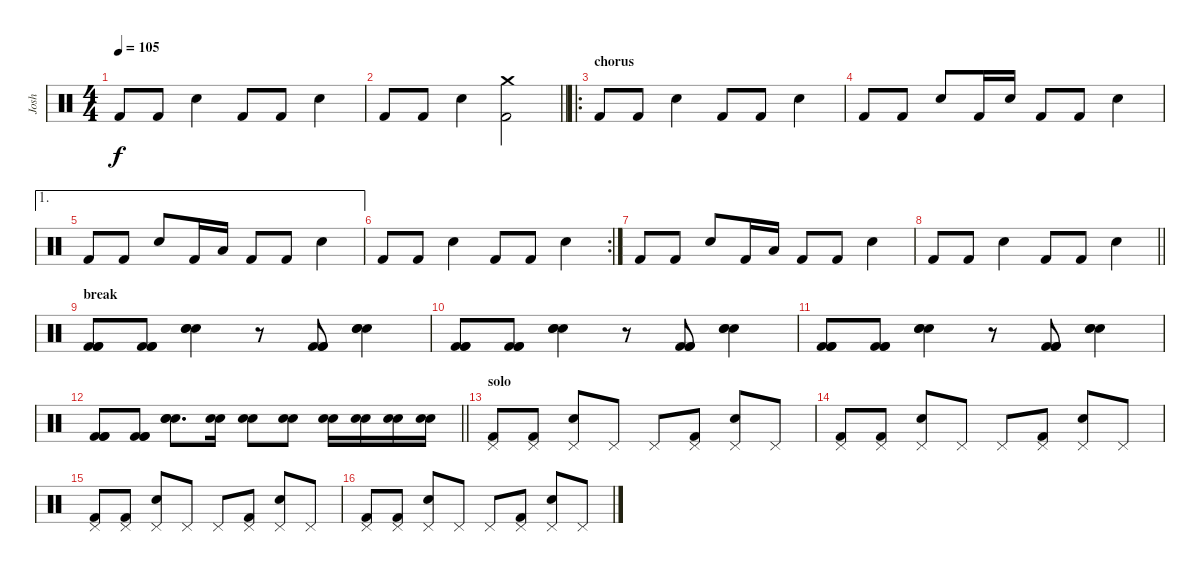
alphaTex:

\track ("Josh" "Josh") {instrument percussion}
\staff {score}
\articulation defaults
\ts (4 4)
\tempo 105
\clef neutral
\ks c "Kick (hit) 2".8{dy f} "Kick (hit) 2".8 "Electric Snare (hit)".4 "Kick (hit) 2".8 "Kick (hit) 2".8 "Electric Snare (hit)".4
|
\barLineRight lightlight "Kick (hit) 2".8 "Kick (hit) 2".8 "Electric Snare (hit)".4
("Crash medium (hit)" "Kick (hit) 2").2 |
\ro
\section ("" "chorus")
"Kick (hit) 2".8 "Kick (hit) 2".8 "Electric Snare (hit)".4 "Kick (hit) 2".8 "Kick (hit) 2".8 "Electric Snare (hit)".4 |
"Kick (hit) 2".8 "Kick (hit) 2".8 "Electric Snare (hit)".8 "Kick (hit) 2".16 "Electric Snare (hit)".16 "Kick (hit) 2".8 "Kick (hit) 2".8 "Electric Snare (hit)".4 |
\ae 1 "Kick (hit) 2".8 "Kick (hit) 2".8 "Electric Snare (hit)".8 "Kick (hit) 2".16 "Low Tom (hit)".16 "Kick (hit) 2".8 "Kick (hit) 2".8 "Electric Snare (hit)".4
|
\rc 2 "Kick (hit) 2".8 "Kick (hit) 2".8 "Electric Snare (hit)".4 "Kick (hit) 2".8 "Kick (hit) 2".8 "Electric Snare (hit)".4
|
"Kick (hit) 2".8 "Kick (hit) 2".8 "Electric Snare (hit)".8 "Kick (hit) 2".16 "Low Tom (hit)".16 "Kick (hit) 2".8 "Kick (hit) 2".8 "Electric Snare (hit)".4 |
\barLineRight lightlight "Kick (hit) 2".8 "Kick (hit) 2".8 "Electric Snare (hit)".4 "Kick (hit) 2".8 "Kick (hit) 2".8 "Electric Snare (hit)".4
|
\section ("" "break")
("Kick (hit) 2" "Kick (hit) 2" "Kick (hit) 2").8{volume 16} ("Kick (hit) 2" "Kick (hit) 2" "Kick (hit) 2").8 ("Electric Snare (hit)" "Electric Snare (hit)" "Electric Snare (hit)").4 r.8 ("Kick (hit) 2" "Kick (hit) 2" "Kick (hit) 2").8 ("Electric Snare (hit)" "Electric Snare (hit)" "Electric Snare (hit)").4 |
("Kick (hit) 2" "Kick (hit) 2" "Kick (hit) 2").8 ("Kick (hit) 2" "Kick (hit) 2" "Kick (hit) 2").8 ("Electric Snare (hit)" "Electric Snare (hit)" "Electric Snare (hit)").4 r.8 ("Kick (hit) 2" "Kick (hit) 2" "Kick (hit) 2").8 ("Electric Snare (hit)" "Electric Snare (hit)" "Electric Snare (hit)").4 |
("Kick (hit) 2" "Kick (hit) 2" "Kick (hit) 2").8 ("Kick (hit) 2" "Kick (hit) 2" "Kick (hit) 2").8 ("Electric Snare (hit)" "Electric Snare (hit)" "Electric Snare (hit)").4 r.8 ("Kick (hit) 2" "Kick (hit) 2" "Kick (hit) 2").8 ("Electric Snare (hit)" "Electric Snare (hit)" "Electric Snare (hit)").4 |
\barLineRight lightlight
("Kick (hit) 2" "Kick (hit) 2" "Kick (hit) 2").8 ("Kick (hit) 2" "Kick (hit) 2" "Kick (hit) 2").8 ("Electric Snare (hit)" "Electric Snare (hit)" "Electric Snare (hit)").8{d} ("Electric Snare (hit)" "Electric Snare (hit)").16 ("Electric Snare (hit)" "Electric Snare (hit)").8 ("Electric Snare (hit)" "Electric Snare (hit)").8 ("Electric Snare (hit)" "Electric Snare (hit)").16 ("Electric Snare (hit)" "Electric Snare (hit)").16 ("Electric Snare (hit)" "Electric Snare (hit)").16 ("Electric Snare (hit)" "Electric Snare (hit)").16 |
\section ("" "solo")
("Pedal Hi-Hat (hit)" "Kick (hit) 2").8 ("Pedal Hi-Hat (hit)" "Kick (hit) 2").8 ("Pedal Hi-Hat (hit)" "Electric Snare (hit)").8 "Pedal Hi-Hat (hit)".8 "Pedal Hi-Hat (hit)".8 ("Pedal Hi-Hat (hit)" "Kick (hit) 2").8 ("Pedal Hi-Hat (hit)" "Electric Snare (hit)").8 "Pedal Hi-Hat (hit)".8 |
("Pedal Hi-Hat (hit)" "Kick (hit) 2").8 ("Pedal Hi-Hat (hit)" "Kick (hit) 2").8 ("Pedal Hi-Hat (hit)" "Electric Snare (hit)").8 "Pedal Hi-Hat (hit)".8 "Pedal Hi-Hat (hit)".8 ("Pedal Hi-Hat (hit)" "Kick (hit) 2").8 ("Pedal Hi-Hat (hit)" "Electric Snare (hit)").8 "Pedal Hi-Hat (hit)".8 |
("Pedal Hi-Hat (hit)" "Kick (hit) 2").8 ("Pedal Hi-Hat (hit)" "Kick (hit) 2").8 ("Pedal Hi-Hat (hit)" "Electric Snare (hit)").8 "Pedal Hi-Hat (hit)".8 "Pedal Hi-Hat (hit)".8 ("Pedal Hi-Hat (hit)" "Kick (hit) 2").8 ("Pedal Hi-Hat (hit)" "Electric Snare (hit)").8 "Pedal Hi-Hat (hit)".8 |
("Pedal Hi-Hat (hit)" "Kick (hit) 2").8 ("Pedal Hi-Hat (hit)" "Kick (hit) 2").8 ("Pedal Hi-Hat (hit)" "Electric Snare (hit)").8 "Pedal Hi-Hat (hit)".8 "Pedal Hi-Hat (hit)".8 ("Pedal Hi-Hat (hit)" "Kick (hit) 2").8 ("Pedal Hi-Hat (hit)" "Electric Snare (hit)").8 "Pedal Hi-Hat (hit)".8
